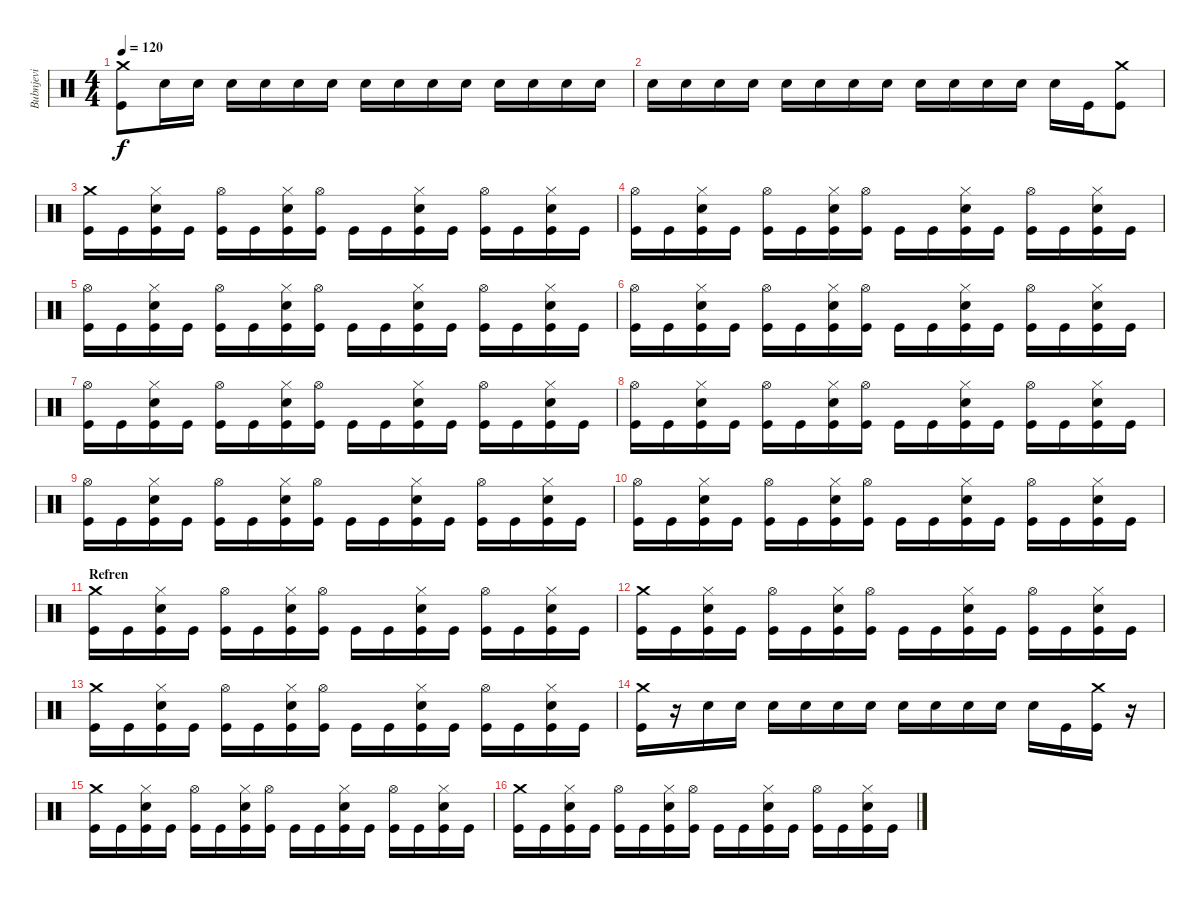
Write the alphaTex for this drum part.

\track ("Bubnjevi" "Bubnjevi") {instrument percussion}
\staff {score}
\articulation defaults
\ts (4 4)
\tempo 120
\clef neutral
\ks c
("Crash medium (hit)" "Kick (hit)").8{dy f} "Electric Snare (hit)".16 "Electric Snare (hit)".16 "Electric Snare (hit)".16 "Electric Snare (hit)".16 "Electric Snare (hit)".16 "Electric Snare (hit)".16 "Electric Snare (hit)".16 "Electric Snare (hit)".16 "Electric Snare (hit)".16 "Electric Snare (hit)".16 "Electric Snare (hit)".16 "Electric Snare (hit)".16 "Electric Snare (hit)".16 "Electric Snare (hit)".16 |
"Electric Snare (hit)".16 "Electric Snare (hit)".16 "Electric Snare (hit)".16 "Electric Snare (hit)".16 "Electric Snare (hit)".16 "Electric Snare (hit)".16 "Electric Snare (hit)".16 "Electric Snare (hit)".16 "Electric Snare (hit)".16 "Electric Snare (hit)".16 "Electric Snare (hit)".16 "Electric Snare (hit)".16 "Electric Snare (hit)".16 "Kick (hit)".16 ("Crash medium (hit)" "Kick (hit)").8 |
("Crash medium (hit)" "Kick (hit)").16 "Kick (hit)".16 ("Electric Snare (hit)" "Hi-Hat (closed)" "Kick (hit)").16 "Kick (hit)".16 ("Hi-Hat (open)" "Kick (hit)").16 "Kick (hit)".16 ("Electric Snare (hit)" "Hi-Hat (closed)" "Kick (hit)").16 ("Hi-Hat (open)" "Kick (hit)").16 "Kick (hit)".16 "Kick (hit)".16 ("Electric Snare (hit)" "Hi-Hat (closed)" "Kick (hit)").16 "Kick (hit)".16 ("Hi-Hat (open)" "Kick (hit)").16 "Kick (hit)".16 ("Electric Snare (hit)" "Hi-Hat (closed)" "Kick (hit)").16 "Kick (hit)".16 |
("Hi-Hat (open)" "Kick (hit)").16 "Kick (hit)".16 ("Electric Snare (hit)" "Hi-Hat (closed)" "Kick (hit)").16 "Kick (hit)".16 ("Hi-Hat (open)" "Kick (hit)").16 "Kick (hit)".16 ("Electric Snare (hit)" "Hi-Hat (closed)" "Kick (hit)").16 ("Hi-Hat (open)" "Kick (hit)").16 "Kick (hit)".16 "Kick (hit)".16 ("Electric Snare (hit)" "Hi-Hat (closed)" "Kick (hit)").16 "Kick (hit)".16 ("Hi-Hat (open)" "Kick (hit)").16 "Kick (hit)".16 ("Electric Snare (hit)" "Hi-Hat (closed)" "Kick (hit)").16 "Kick (hit)".16 |
("Hi-Hat (open)" "Kick (hit)").16 "Kick (hit)".16 ("Electric Snare (hit)" "Hi-Hat (closed)" "Kick (hit)").16 "Kick (hit)".16 ("Hi-Hat (open)" "Kick (hit)").16 "Kick (hit)".16 ("Electric Snare (hit)" "Hi-Hat (closed)" "Kick (hit)").16 ("Hi-Hat (open)" "Kick (hit)").16 "Kick (hit)".16 "Kick (hit)".16 ("Electric Snare (hit)" "Hi-Hat (closed)" "Kick (hit)").16 "Kick (hit)".16 ("Hi-Hat (open)" "Kick (hit)").16 "Kick (hit)".16 ("Electric Snare (hit)" "Hi-Hat (closed)" "Kick (hit)").16 "Kick (hit)".16 |
("Hi-Hat (open)" "Kick (hit)").16 "Kick (hit)".16 ("Electric Snare (hit)" "Hi-Hat (closed)" "Kick (hit)").16 "Kick (hit)".16 ("Hi-Hat (open)" "Kick (hit)").16 "Kick (hit)".16 ("Electric Snare (hit)" "Hi-Hat (closed)" "Kick (hit)").16 ("Hi-Hat (open)" "Kick (hit)").16 "Kick (hit)".16 "Kick (hit)".16 ("Electric Snare (hit)" "Hi-Hat (closed)" "Kick (hit)").16 "Kick (hit)".16 ("Hi-Hat (open)" "Kick (hit)").16 "Kick (hit)".16 ("Electric Snare (hit)" "Hi-Hat (closed)" "Kick (hit)").16 "Kick (hit)".16 |
("Hi-Hat (open)" "Kick (hit)").16 "Kick (hit)".16 ("Electric Snare (hit)" "Hi-Hat (closed)" "Kick (hit)").16 "Kick (hit)".16 ("Hi-Hat (open)" "Kick (hit)").16 "Kick (hit)".16 ("Electric Snare (hit)" "Hi-Hat (closed)" "Kick (hit)").16 ("Hi-Hat (open)" "Kick (hit)").16 "Kick (hit)".16 "Kick (hit)".16 ("Electric Snare (hit)" "Hi-Hat (closed)" "Kick (hit)").16 "Kick (hit)".16 ("Hi-Hat (open)" "Kick (hit)").16 "Kick (hit)".16 ("Electric Snare (hit)" "Hi-Hat (closed)" "Kick (hit)").16 "Kick (hit)".16 |
("Hi-Hat (open)" "Kick (hit)").16 "Kick (hit)".16 ("Electric Snare (hit)" "Hi-Hat (closed)" "Kick (hit)").16 "Kick (hit)".16 ("Hi-Hat (open)" "Kick (hit)").16 "Kick (hit)".16 ("Electric Snare (hit)" "Hi-Hat (closed)" "Kick (hit)").16 ("Hi-Hat (open)" "Kick (hit)").16 "Kick (hit)".16 "Kick (hit)".16 ("Electric Snare (hit)" "Hi-Hat (closed)" "Kick (hit)").16 "Kick (hit)".16 ("Hi-Hat (open)" "Kick (hit)").16 "Kick (hit)".16 ("Electric Snare (hit)" "Hi-Hat (closed)" "Kick (hit)").16 "Kick (hit)".16 |
("Hi-Hat (open)" "Kick (hit)").16 "Kick (hit)".16 ("Electric Snare (hit)" "Hi-Hat (closed)" "Kick (hit)").16 "Kick (hit)".16 ("Hi-Hat (open)" "Kick (hit)").16 "Kick (hit)".16 ("Electric Snare (hit)" "Hi-Hat (closed)" "Kick (hit)").16 ("Hi-Hat (open)" "Kick (hit)").16 "Kick (hit)".16 "Kick (hit)".16 ("Electric Snare (hit)" "Hi-Hat (closed)" "Kick (hit)").16 "Kick (hit)".16 ("Hi-Hat (open)" "Kick (hit)").16 "Kick (hit)".16 ("Electric Snare (hit)" "Hi-Hat (closed)" "Kick (hit)").16 "Kick (hit)".16 |
("Hi-Hat (open)" "Kick (hit)").16 "Kick (hit)".16 ("Electric Snare (hit)" "Hi-Hat (closed)" "Kick (hit)").16 "Kick (hit)".16 ("Hi-Hat (open)" "Kick (hit)").16 "Kick (hit)".16 ("Electric Snare (hit)" "Hi-Hat (closed)" "Kick (hit)").16 ("Hi-Hat (open)" "Kick (hit)").16 "Kick (hit)".16 "Kick (hit)".16 ("Electric Snare (hit)" "Hi-Hat (closed)" "Kick (hit)").16 "Kick (hit)".16 ("Hi-Hat (open)" "Kick (hit)").16 "Kick (hit)".16 ("Electric Snare (hit)" "Hi-Hat (closed)" "Kick (hit)").16 "Kick (hit)".16 |
\section ("" "Refren")
("Crash medium (hit)" "Kick (hit)").16 "Kick (hit)".16 ("Electric Snare (hit)" "Hi-Hat (closed)" "Kick (hit)").16 "Kick (hit)".16 ("Hi-Hat (open)" "Kick (hit)").16 "Kick (hit)".16 ("Electric Snare (hit)" "Hi-Hat (closed)" "Kick (hit)").16 ("Hi-Hat (open)" "Kick (hit)").16 "Kick (hit)".16 "Kick (hit)".16 ("Electric Snare (hit)" "Hi-Hat (closed)" "Kick (hit)").16 "Kick (hit)".16 ("Hi-Hat (open)" "Kick (hit)").16 "Kick (hit)".16 ("Electric Snare (hit)" "Hi-Hat (closed)" "Kick (hit)").16 "Kick (hit)".16 |
("Crash medium (hit)" "Kick (hit)").16 "Kick (hit)".16 ("Electric Snare (hit)" "Hi-Hat (closed)" "Kick (hit)").16 "Kick (hit)".16 ("Hi-Hat (open)" "Kick (hit)").16 "Kick (hit)".16 ("Electric Snare (hit)" "Hi-Hat (closed)" "Kick (hit)").16 ("Hi-Hat (open)" "Kick (hit)").16 "Kick (hit)".16 "Kick (hit)".16 ("Electric Snare (hit)" "Hi-Hat (closed)" "Kick (hit)").16 "Kick (hit)".16 ("Hi-Hat (open)" "Kick (hit)").16 "Kick (hit)".16 ("Electric Snare (hit)" "Hi-Hat (closed)" "Kick (hit)").16 "Kick (hit)".16 |
("Crash medium (hit)" "Kick (hit)").16 "Kick (hit)".16 ("Electric Snare (hit)" "Hi-Hat (closed)" "Kick (hit)").16 "Kick (hit)".16 ("Hi-Hat (open)" "Kick (hit)").16 "Kick (hit)".16 ("Electric Snare (hit)" "Hi-Hat (closed)" "Kick (hit)").16 ("Hi-Hat (open)" "Kick (hit)").16 "Kick (hit)".16 "Kick (hit)".16 ("Electric Snare (hit)" "Hi-Hat (closed)" "Kick (hit)").16 "Kick (hit)".16 ("Hi-Hat (open)" "Kick (hit)").16 "Kick (hit)".16 ("Electric Snare (hit)" "Hi-Hat (closed)" "Kick (hit)").16 "Kick (hit)".16 |
("Crash medium (hit)" "Kick (hit)").16 r.16 "Electric Snare (hit)".16 "Electric Snare (hit)".16 "Electric Snare (hit)".16 "Electric Snare (hit)".16 "Electric Snare (hit)".16 "Electric Snare (hit)".16 "Electric Snare (hit)".16 "Electric Snare (hit)".16 "Electric Snare (hit)".16 "Electric Snare (hit)".16 "Electric Snare (hit)".16 "Kick (hit)".16 ("Crash medium (hit)" "Kick (hit)").16 r.16 |
("Crash medium (hit)" "Kick (hit)").16 "Kick (hit)".16 ("Electric Snare (hit)" "Hi-Hat (closed)" "Kick (hit)").16 "Kick (hit)".16 ("Hi-Hat (open)" "Kick (hit)").16 "Kick (hit)".16 ("Electric Snare (hit)" "Hi-Hat (closed)" "Kick (hit)").16 ("Hi-Hat (open)" "Kick (hit)").16 "Kick (hit)".16 "Kick (hit)".16 ("Electric Snare (hit)" "Hi-Hat (closed)" "Kick (hit)").16 "Kick (hit)".16 ("Hi-Hat (open)" "Kick (hit)").16 "Kick (hit)".16 ("Electric Snare (hit)" "Hi-Hat (closed)" "Kick (hit)").16 "Kick (hit)".16 |
("Crash medium (hit)" "Kick (hit)").16 "Kick (hit)".16 ("Electric Snare (hit)" "Hi-Hat (closed)" "Kick (hit)").16 "Kick (hit)".16 ("Hi-Hat (open)" "Kick (hit)").16 "Kick (hit)".16 ("Electric Snare (hit)" "Hi-Hat (closed)" "Kick (hit)").16 ("Hi-Hat (open)" "Kick (hit)").16 "Kick (hit)".16 "Kick (hit)".16 ("Electric Snare (hit)" "Hi-Hat (closed)" "Kick (hit)").16 "Kick (hit)".16 ("Hi-Hat (open)" "Kick (hit)").16 "Kick (hit)".16 ("Electric Snare (hit)" "Hi-Hat (closed)" "Kick (hit)").16 "Kick (hit)".16
